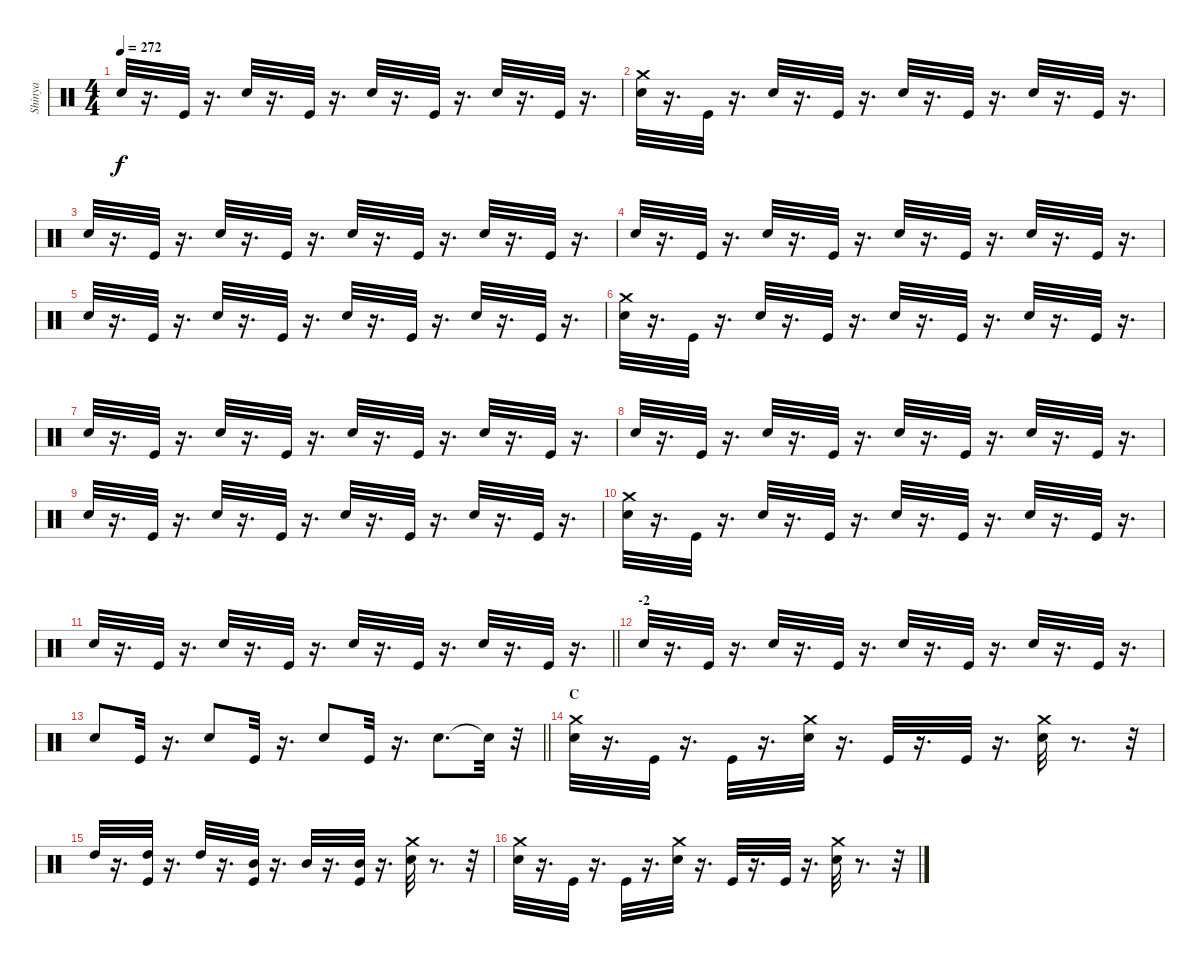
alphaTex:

\track ("Shinya" "Shinya") {instrument percussion}
\staff {score}
\articulation defaults
\ts (4 4)
\tempo 272
\clef neutral
\ks c "Snare (hit) 2".32{dy f}
r.16{d} "Kick (hit)".32 r.16{d} "Snare (hit) 2".32 r.16{d} "Kick (hit)".32 r.16{d} "Snare (hit) 2".32 r.16{d} "Kick (hit)".32 r.16{d} "Snare (hit) 2".32 r.16{d} "Kick (hit)".32 r.16{d} |
("Crash medium (hit)" "Snare (hit) 2").32 r.16{d} "Kick (hit)".32 r.16{d} "Snare (hit) 2".32 r.16{d} "Kick (hit)".32 r.16{d} "Snare (hit) 2".32 r.16{d} "Kick (hit)".32 r.16{d} "Snare (hit) 2".32 r.16{d} "Kick (hit)".32 r.16{d} |
"Snare (hit) 2".32 r.16{d} "Kick (hit)".32 r.16{d} "Snare (hit) 2".32 r.16{d} "Kick (hit)".32 r.16{d} "Snare (hit) 2".32 r.16{d} "Kick (hit)".32 r.16{d} "Snare (hit) 2".32 r.16{d} "Kick (hit)".32 r.16{d} |
"Snare (hit) 2".32 r.16{d} "Kick (hit)".32 r.16{d} "Snare (hit) 2".32 r.16{d} "Kick (hit)".32 r.16{d} "Snare (hit) 2".32 r.16{d} "Kick (hit)".32 r.16{d} "Snare (hit) 2".32 r.16{d} "Kick (hit)".32 r.16{d} |
"Snare (hit) 2".32 r.16{d} "Kick (hit)".32 r.16{d} "Snare (hit) 2".32 r.16{d} "Kick (hit)".32 r.16{d} "Snare (hit) 2".32 r.16{d} "Kick (hit)".32 r.16{d} "Snare (hit) 2".32 r.16{d} "Kick (hit)".32 r.16{d} |
("Crash medium (hit)" "Snare (hit) 2").32 r.16{d} "Kick (hit)".32 r.16{d} "Snare (hit) 2".32 r.16{d} "Kick (hit)".32 r.16{d} "Snare (hit) 2".32 r.16{d} "Kick (hit)".32 r.16{d} "Snare (hit) 2".32 r.16{d} "Kick (hit)".32 r.16{d} |
"Snare (hit) 2".32 r.16{d} "Kick (hit)".32 r.16{d} "Snare (hit) 2".32 r.16{d} "Kick (hit)".32 r.16{d} "Snare (hit) 2".32 r.16{d} "Kick (hit)".32 r.16{d} "Snare (hit) 2".32 r.16{d} "Kick (hit)".32 r.16{d} |
"Snare (hit) 2".32 r.16{d} "Kick (hit)".32 r.16{d} "Snare (hit) 2".32 r.16{d} "Kick (hit)".32 r.16{d} "Snare (hit) 2".32 r.16{d} "Kick (hit)".32 r.16{d} "Snare (hit) 2".32 r.16{d} "Kick (hit)".32 r.16{d} |
"Snare (hit) 2".32 r.16{d} "Kick (hit)".32 r.16{d} "Snare (hit) 2".32 r.16{d} "Kick (hit)".32 r.16{d} "Snare (hit) 2".32 r.16{d} "Kick (hit)".32 r.16{d} "Snare (hit) 2".32 r.16{d} "Kick (hit)".32 r.16{d} |
("Crash medium (hit)" "Snare (hit) 2").32 r.16{d} "Kick (hit)".32 r.16{d} "Snare (hit) 2".32 r.16{d} "Kick (hit)".32 r.16{d} "Snare (hit) 2".32 r.16{d} "Kick (hit)".32 r.16{d} "Snare (hit) 2".32 r.16{d} "Kick (hit)".32 r.16{d} |
\barLineRight lightlight "Snare (hit) 2".32
r.16{d} "Kick (hit)".32 r.16{d} "Snare (hit) 2".32 r.16{d} "Kick (hit)".32 r.16{d} "Snare (hit) 2".32 r.16{d} "Kick (hit)".32 r.16{d} "Snare (hit) 2".32 r.16{d} "Kick (hit)".32 r.16{d} |
\section ("" "-2")
"Snare (hit) 2".32 r.16{d} "Kick (hit)".32 r.16{d} "Snare (hit) 2".32 r.16{d} "Kick (hit)".32 r.16{d} "Snare (hit) 2".32 r.16{d} "Kick (hit)".32 r.16{d} "Snare (hit) 2".32 r.16{d} "Kick (hit)".32 r.16{d} |
\barLineRight lightlight "Snare (hit) 2".8 "Kick (hit)".32
r.16{d} "Snare (hit) 2".8 "Kick (hit)".32 r.16{d} "Snare (hit) 2".8 "Kick (hit)".32 r.16{d} "Snare (hit) 2".8{d} "Snare (hit)"{t}.32 r.32 |
\section ("" "C")
("Snare (hit) 2" "Crash medium (hit)").32 r.16{d} "Kick (hit)".32 r.16{d} "Kick (hit)".32 r.16{d} ("Crash medium (hit)" "Snare (hit) 2").32 r.16{d} "Kick (hit)".32 r.16{d} "Kick (hit)".32 r.16{d} ("Snare (hit) 2" "Crash medium (hit)").32 r.8{d} r.32 |
"High Tom (hit)".32 r.16{d} ("Kick (hit)" "High Tom (hit)").32 r.16{d} "High Tom (hit)".32 r.16{d} ("Kick (hit)" "Mid Tom (hit)").32 r.16{d} "Mid Tom (hit)".32 r.16{d} ("Kick (hit)" "Mid Tom (hit)").32 r.16{d} ("Crash medium (hit)" "Snare (hit) 2").32 r.8{d} r.32 |
("Snare (hit) 2" "Crash medium (hit)").32 r.16{d} "Kick (hit)".32 r.16{d} "Kick (hit)".32 r.16{d} ("Crash medium (hit)" "Snare (hit) 2").32 r.16{d} "Kick (hit)".32 r.16{d} "Kick (hit)".32 r.16{d} ("Snare (hit) 2" "Crash medium (hit)").32 r.8{d} r.32
